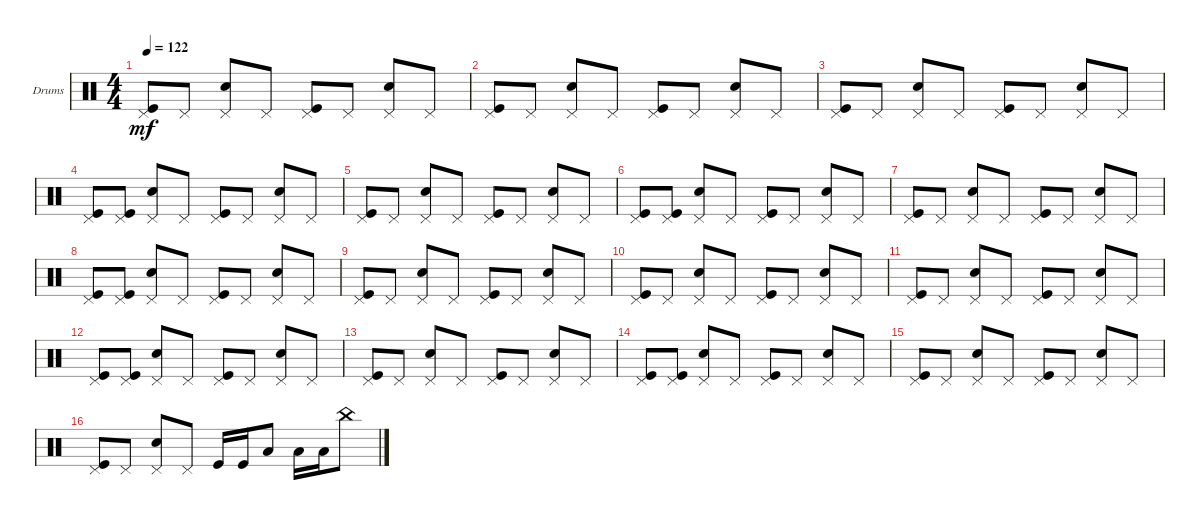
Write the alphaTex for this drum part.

\defaultSystemsLayout 4
\bracketExtendMode groupsimilarinstruments
\firstSystemTrackNameOrientation horizontal
\otherSystemsTrackNameOrientation horizontal
\track ("Drums" "Drums") {instrument percussion}
\staff {score}
\articulation defaults
\ts (4 4)
\tempo 122
\clef neutral
\scale
0.333333
\ks c
("Pedal Hi-Hat (hit)" "Kick (hit)").8{dy mf} "Pedal Hi-Hat (hit)".8 ("Pedal Hi-Hat (hit)" "Snare (hit) 2").8 "Pedal Hi-Hat (hit)".8 ("Pedal Hi-Hat (hit)" "Kick (hit)").8 "Pedal Hi-Hat (hit)".8 ("Pedal Hi-Hat (hit)" "Snare (hit) 2").8 "Pedal Hi-Hat (hit)".8 |
\scale
0.333333 ("Pedal Hi-Hat (hit)" "Kick (hit)").8 "Pedal Hi-Hat (hit)".8 ("Pedal Hi-Hat (hit)" "Snare (hit) 2").8 "Pedal Hi-Hat (hit)".8 ("Pedal Hi-Hat (hit)" "Kick (hit)").8 "Pedal Hi-Hat (hit)".8 ("Pedal Hi-Hat (hit)" "Snare (hit) 2").8 "Pedal Hi-Hat (hit)".8 |
\scale
0.333333 ("Pedal Hi-Hat (hit)" "Kick (hit)").8 "Pedal Hi-Hat (hit)".8 ("Pedal Hi-Hat (hit)" "Snare (hit) 2").8 "Pedal Hi-Hat (hit)".8 ("Pedal Hi-Hat (hit)" "Kick (hit)").8 "Pedal Hi-Hat (hit)".8 ("Pedal Hi-Hat (hit)" "Snare (hit) 2").8 "Pedal Hi-Hat (hit)".8 |
\scale
0.333333 ("Pedal Hi-Hat (hit)" "Kick (hit)").8 ("Pedal Hi-Hat (hit)" "Kick (hit)").8 ("Pedal Hi-Hat (hit)" "Snare (hit) 2").8 "Pedal Hi-Hat (hit)".8 ("Pedal Hi-Hat (hit)" "Kick (hit)").8 "Pedal Hi-Hat (hit)".8 ("Pedal Hi-Hat (hit)" "Snare (hit) 2").8 "Pedal Hi-Hat (hit)".8 |
("Pedal Hi-Hat (hit)" "Kick (hit)").8 "Pedal Hi-Hat (hit)".8 ("Pedal Hi-Hat (hit)" "Snare (hit) 2").8 "Pedal Hi-Hat (hit)".8 ("Pedal Hi-Hat (hit)" "Kick (hit)").8 "Pedal Hi-Hat (hit)".8 ("Pedal Hi-Hat (hit)" "Snare (hit) 2").8 "Pedal Hi-Hat (hit)".8 |
("Pedal Hi-Hat (hit)" "Kick (hit)").8 ("Pedal Hi-Hat (hit)" "Kick (hit)").8 ("Pedal Hi-Hat (hit)" "Snare (hit) 2").8 "Pedal Hi-Hat (hit)".8 ("Pedal Hi-Hat (hit)" "Kick (hit)").8 "Pedal Hi-Hat (hit)".8 ("Pedal Hi-Hat (hit)" "Snare (hit) 2").8 "Pedal Hi-Hat (hit)".8 |
("Pedal Hi-Hat (hit)" "Kick (hit)").8 "Pedal Hi-Hat (hit)".8 ("Pedal Hi-Hat (hit)" "Snare (hit) 2").8 "Pedal Hi-Hat (hit)".8 ("Pedal Hi-Hat (hit)" "Kick (hit)").8 "Pedal Hi-Hat (hit)".8 ("Pedal Hi-Hat (hit)" "Snare (hit) 2").8 "Pedal Hi-Hat (hit)".8 |
("Pedal Hi-Hat (hit)" "Kick (hit)").8 ("Pedal Hi-Hat (hit)" "Kick (hit)").8 ("Pedal Hi-Hat (hit)" "Snare (hit) 2").8 "Pedal Hi-Hat (hit)".8 ("Pedal Hi-Hat (hit)" "Kick (hit)").8 "Pedal Hi-Hat (hit)".8 ("Pedal Hi-Hat (hit)" "Snare (hit) 2").8 "Pedal Hi-Hat (hit)".8 |
("Pedal Hi-Hat (hit)" "Kick (hit)").8 "Pedal Hi-Hat (hit)".8 ("Pedal Hi-Hat (hit)" "Snare (hit) 2").8 "Pedal Hi-Hat (hit)".8 ("Pedal Hi-Hat (hit)" "Kick (hit)").8 "Pedal Hi-Hat (hit)".8 ("Pedal Hi-Hat (hit)" "Snare (hit) 2").8 "Pedal Hi-Hat (hit)".8 |
("Pedal Hi-Hat (hit)" "Kick (hit)").8 "Pedal Hi-Hat (hit)".8 ("Pedal Hi-Hat (hit)" "Snare (hit) 2").8 "Pedal Hi-Hat (hit)".8 ("Pedal Hi-Hat (hit)" "Kick (hit)").8 "Pedal Hi-Hat (hit)".8 ("Pedal Hi-Hat (hit)" "Snare (hit) 2").8 "Pedal Hi-Hat (hit)".8 |
\scale
0.333333 ("Pedal Hi-Hat (hit)" "Kick (hit)").8 "Pedal Hi-Hat (hit)".8 ("Pedal Hi-Hat (hit)" "Snare (hit) 2").8 "Pedal Hi-Hat (hit)".8 ("Pedal Hi-Hat (hit)" "Kick (hit)").8 "Pedal Hi-Hat (hit)".8 ("Pedal Hi-Hat (hit)" "Snare (hit) 2").8 "Pedal Hi-Hat (hit)".8 |
\scale
0.333333 ("Pedal Hi-Hat (hit)" "Kick (hit)").8 ("Pedal Hi-Hat (hit)" "Kick (hit)").8 ("Pedal Hi-Hat (hit)" "Snare (hit) 2").8 "Pedal Hi-Hat (hit)".8 ("Pedal Hi-Hat (hit)" "Kick (hit)").8 "Pedal Hi-Hat (hit)".8 ("Pedal Hi-Hat (hit)" "Snare (hit) 2").8 "Pedal Hi-Hat (hit)".8 |
\scale
0.333333 ("Pedal Hi-Hat (hit)" "Kick (hit)").8 "Pedal Hi-Hat (hit)".8 ("Pedal Hi-Hat (hit)" "Snare (hit) 2").8 "Pedal Hi-Hat (hit)".8 ("Pedal Hi-Hat (hit)" "Kick (hit)").8 "Pedal Hi-Hat (hit)".8 ("Pedal Hi-Hat (hit)" "Snare (hit) 2").8 "Pedal Hi-Hat (hit)".8 |
\scale
0.333333 ("Pedal Hi-Hat (hit)" "Kick (hit)").8 ("Pedal Hi-Hat (hit)" "Kick (hit)").8 ("Pedal Hi-Hat (hit)" "Snare (hit) 2").8 "Pedal Hi-Hat (hit)".8 ("Pedal Hi-Hat (hit)" "Kick (hit)").8 "Pedal Hi-Hat (hit)".8 ("Pedal Hi-Hat (hit)" "Snare (hit) 2").8 "Pedal Hi-Hat (hit)".8 |
\scale
0.333333 ("Pedal Hi-Hat (hit)" "Kick (hit)").8 "Pedal Hi-Hat (hit)".8 ("Pedal Hi-Hat (hit)" "Snare (hit) 2").8 "Pedal Hi-Hat (hit)".8 ("Pedal Hi-Hat (hit)" "Kick (hit)").8 "Pedal Hi-Hat (hit)".8 ("Pedal Hi-Hat (hit)" "Snare (hit) 2").8 "Pedal Hi-Hat (hit)".8 |
\scale
0.333333 ("Pedal Hi-Hat (hit)" "Kick (hit)").8 "Pedal Hi-Hat (hit)".8 ("Pedal Hi-Hat (hit)" "Snare (hit) 2").8 "Pedal Hi-Hat (hit)".8 "Kick (hit)".16 "Kick (hit)".16 "Low Tom (hit)".8 "Low Tom (hit)".16 "Low Tom (hit)".16 "China (hit)".8
